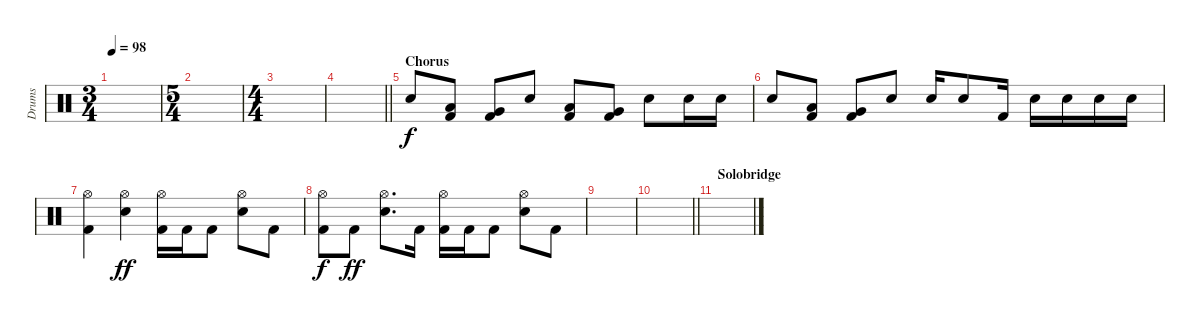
\track ("Drums" "Drums") {instrument percussion}
\staff {score}
\articulation defaults
\ts (3 4)
\tempo 98
\clef neutral
\ks c
|
\ts (5 4)
|
\ts (4 4)
|
\barLineRight lightlight
|
\section ("" "Chorus")
"Snare (hit) 2".8 ("Low Tom (hit)" "Kick (hit) 2").8 ("Very Low Tom (hit)" "Kick (hit) 2").8 "Snare (hit) 2".8 ("Low Tom (hit)" "Kick (hit) 2").8 ("Very Low Tom (hit)" "Kick (hit) 2").8 "Snare (hit) 2".8 "Snare (hit) 2".16 "Snare (hit) 2".16 |
"Snare (hit) 2".8 ("Low Tom (hit)" "Kick (hit) 2").8 ("Very Low Tom (hit)" "Kick (hit) 2").8 "Snare (hit) 2".8 "Snare (hit) 2".16 "Snare (hit) 2".8 "Kick (hit) 2".16 "Snare (hit) 2".16 "Snare (hit) 2".16 "Snare (hit) 2".16 "Snare (hit) 2".16 |
("Hi-Hat (open)" "Kick (hit) 2").4 ("Hi-Hat (open)" "Snare (hit) 2").4{dy ff} ("Hi-Hat (open)" "Kick (hit) 2").16 "Kick (hit) 2".16 "Kick (hit) 2".8 ("Hi-Hat (open)" "Snare (hit) 2").8 "Kick (hit) 2".8 |
("Hi-Hat (open)" "Kick (hit) 2").8{dy f} "Kick (hit) 2".8{dy ff} ("Hi-Hat (open)" "Snare (hit) 2").8{d} "Kick (hit) 2".16 ("Hi-Hat (open)" "Kick (hit) 2").16 "Kick (hit) 2".16 "Kick (hit) 2".8 ("Hi-Hat (open)" "Snare (hit) 2").8 "Kick (hit) 2".8 |
|
\barLineRight lightlight
|
\section ("" "Solobridge")
